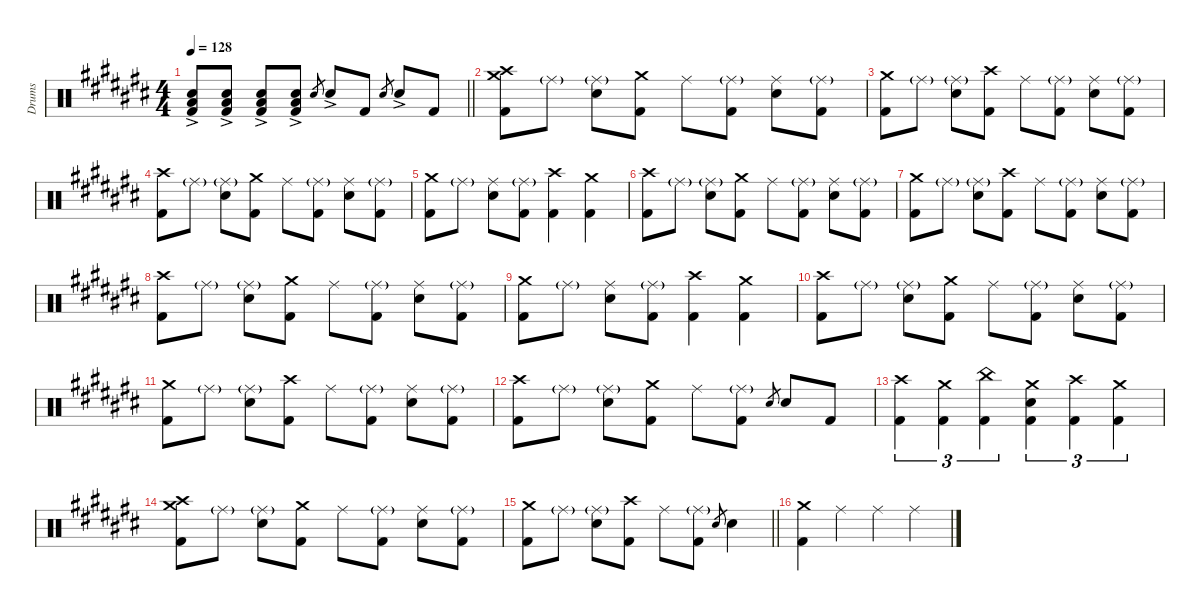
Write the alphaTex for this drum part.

\hideDynamics
\bracketExtendMode nobrackets
\otherSystemsTrackNameOrientation horizontal
\track ("Drumkit" "Drums") {defaultSystemsLayout 4 instrument percussion}
\staff {score}
\articulation defaults
\ts (4 4)
\tempo 128
\clef neutral
\barLineRight lightlight
\ks c#
("Low Tom (hit)"{ac acc forcenatural} "Snare (hit) 2"{acc forcenatural} "Kick (hit) 2"{acc forcenatural}).8{dy f beam Up} ("Low Tom (hit)"{ac acc forcenatural} "Snare (hit) 2"{acc forcenatural} "Kick (hit) 2"{acc forcenatural}).8{beam Up} ("Low Tom (hit)"{ac acc forcenatural} "Snare (hit) 2"{acc forcenatural} "Kick (hit) 2"{acc forcenatural}).8{dy ff beam Up} ("Low Tom (hit)"{ac acc forcenatural} "Snare (hit) 2"{acc forcenatural} "Kick (hit) 2"{acc forcenatural}).8{beam Up} "Snare (hit) 2"{acc forcenatural}.8{gr beam Up} "Snare (hit) 2"{ac acc forcenatural}.8{beam Up} "Kick (hit) 2"{acc forcenatural}.8{beam Up} "Snare (hit) 2"{acc forcenatural}.8{gr beam Up} "Snare (hit) 2"{ac acc forcenatural}.8{beam Up} "Kick (hit) 2"{acc forcenatural}.8{beam Up} |
("Kick (hit) 2"{acc forcenatural} "Crash high (hit)"{acc forcenatural} "Crash medium (hit)"{acc forcenatural}).8{beam Down} "Ride (middle)"{g acc forcenatural}.8{beam Down} ("Ride (middle)"{g acc forcenatural} "Snare (hit) 2"{acc forcenatural}).8{beam Down} ("Kick (hit) 2"{acc forcenatural} "Crash medium (hit)"{acc forcenatural}).8{beam Down} "Ride (middle)"{acc forcenatural}.8{beam Down} ("Ride (middle)"{g acc forcenatural} "Kick (hit) 2"{acc forcenatural}).8{beam Down} ("Ride (middle)"{acc forcenatural} "Snare (hit) 2"{acc forcenatural}).8{beam Down} ("Ride (middle)"{g acc forcenatural} "Kick (hit) 2"{acc forcenatural}).8{beam Down} |
("Crash medium (hit)"{acc forcenatural} "Kick (hit) 2"{acc forcenatural}).8{beam Down} "Ride (middle)"{g acc forcenatural}.8{beam Down} ("Ride (middle)"{g acc forcenatural} "Snare (hit) 2"{acc forcenatural}).8{beam Down} ("Crash high (hit)"{acc forcenatural} "Kick (hit) 2"{acc forcenatural}).8{beam Down} "Ride (middle)"{acc forcenatural}.8{beam Down} ("Ride (middle)"{g acc forcenatural} "Kick (hit) 2"{acc forcenatural}).8{beam Down} ("Ride (middle)"{acc forcenatural} "Snare (hit) 2"{acc forcenatural}).8{beam Down} ("Ride (middle)"{g acc forcenatural} "Kick (hit) 2"{acc forcenatural}).8{beam Down} |
("Kick (hit) 2"{acc forcenatural} "Crash high (hit)"{acc forcenatural}).8{beam Down} "Ride (middle)"{g acc forcenatural}.8{beam Down} ("Ride (middle)"{g acc forcenatural} "Snare (hit) 2"{acc forcenatural}).8{beam Down} ("Kick (hit) 2"{acc forcenatural} "Crash medium (hit)"{acc forcenatural}).8{beam Down} "Ride (middle)"{acc forcenatural}.8{beam Down} ("Ride (middle)"{g acc forcenatural} "Kick (hit) 2"{acc forcenatural}).8{beam Down} ("Ride (middle)"{acc forcenatural} "Snare (hit) 2"{acc forcenatural}).8{beam Down} ("Ride (middle)"{g acc forcenatural} "Kick (hit) 2"{acc forcenatural}).8{beam Down} |
("Crash medium (hit)"{acc forcenatural} "Kick (hit) 2"{acc forcenatural}).8{beam Down} "Ride (middle)"{g acc forcenatural}.8{beam Down} ("Ride (middle)"{acc forcenatural} "Snare (hit) 2"{acc forcenatural}).8{beam Down} ("Ride (middle)"{g acc forcenatural} "Kick (hit) 2"{acc forcenatural}).8{beam Down} ("Crash high (hit)"{acc forcenatural} "Kick (hit) 2"{acc forcenatural}).4{beam Down} ("Kick (hit) 2"{acc forcenatural} "Crash medium (hit)"{acc forcenatural}).4{beam Down} |
("Kick (hit) 2"{acc forcenatural} "Crash high (hit)"{acc forcenatural}).8{beam Down} "Ride (middle)"{g acc forcenatural}.8{beam Down} ("Ride (middle)"{g acc forcenatural} "Snare (hit) 2"{acc forcenatural}).8{beam Down} ("Kick (hit) 2"{acc forcenatural} "Crash medium (hit)"{acc forcenatural}).8{beam Down} "Ride (middle)"{acc forcenatural}.8{beam Down} ("Ride (middle)"{g acc forcenatural} "Kick (hit) 2"{acc forcenatural}).8{beam Down} ("Ride (middle)"{acc forcenatural} "Snare (hit) 2"{acc forcenatural}).8{beam Down} ("Ride (middle)"{g acc forcenatural} "Kick (hit) 2"{acc forcenatural}).8{beam Down} |
("Crash medium (hit)"{acc forcenatural} "Kick (hit) 2"{acc forcenatural}).8{beam Down} "Ride (middle)"{g acc forcenatural}.8{beam Down} ("Ride (middle)"{g acc forcenatural} "Snare (hit) 2"{acc forcenatural}).8{beam Down} ("Crash high (hit)"{acc forcenatural} "Kick (hit) 2"{acc forcenatural}).8{beam Down} "Ride (middle)"{acc forcenatural}.8{beam Down} ("Ride (middle)"{g acc forcenatural} "Kick (hit) 2"{acc forcenatural}).8{beam Down} ("Ride (middle)"{acc forcenatural} "Snare (hit) 2"{acc forcenatural}).8{beam Down} ("Ride (middle)"{g acc forcenatural} "Kick (hit) 2"{acc forcenatural}).8{beam Down} |
("Kick (hit) 2"{acc forcenatural} "Crash high (hit)"{acc forcenatural}).8{beam Down} "Ride (middle)"{g acc forcenatural}.8{beam Down} ("Ride (middle)"{g acc forcenatural} "Snare (hit) 2"{acc forcenatural}).8{beam Down} ("Kick (hit) 2"{acc forcenatural} "Crash medium (hit)"{acc forcenatural}).8{beam Down} "Ride (middle)"{acc forcenatural}.8{beam Down} ("Ride (middle)"{g acc forcenatural} "Kick (hit) 2"{acc forcenatural}).8{beam Down} ("Ride (middle)"{acc forcenatural} "Snare (hit) 2"{acc forcenatural}).8{beam Down} ("Ride (middle)"{g acc forcenatural} "Kick (hit) 2"{acc forcenatural}).8{beam Down} |
("Crash medium (hit)"{acc forcenatural} "Kick (hit) 2"{acc forcenatural}).8{beam Down} "Ride (middle)"{g acc forcenatural}.8{beam Down} ("Ride (middle)"{acc forcenatural} "Snare (hit) 2"{acc forcenatural}).8{beam Down} ("Ride (middle)"{g acc forcenatural} "Kick (hit) 2"{acc forcenatural}).8{beam Down} ("Crash high (hit)"{acc forcenatural} "Kick (hit) 2"{acc forcenatural}).4{beam Down} ("Kick (hit) 2"{acc forcenatural} "Crash medium (hit)"{acc forcenatural}).4{beam Down} |
("Kick (hit) 2"{acc forcenatural} "Crash high (hit)"{acc forcenatural}).8{beam Down} "Ride (middle)"{g acc forcenatural}.8{beam Down} ("Ride (middle)"{g acc forcenatural} "Snare (hit) 2"{acc forcenatural}).8{beam Down} ("Kick (hit) 2"{acc forcenatural} "Crash medium (hit)"{acc forcenatural}).8{beam Down} "Ride (middle)"{acc forcenatural}.8{beam Down} ("Ride (middle)"{g acc forcenatural} "Kick (hit) 2"{acc forcenatural}).8{beam Down} ("Ride (middle)"{acc forcenatural} "Snare (hit) 2"{acc forcenatural}).8{beam Down} ("Ride (middle)"{g acc forcenatural} "Kick (hit) 2"{acc forcenatural}).8{beam Down} |
("Crash medium (hit)"{acc forcenatural} "Kick (hit) 2"{acc forcenatural}).8{beam Down} "Ride (middle)"{g acc forcenatural}.8{beam Down} ("Ride (middle)"{g acc forcenatural} "Snare (hit) 2"{acc forcenatural}).8{beam Down} ("Crash high (hit)"{acc forcenatural} "Kick (hit) 2"{acc forcenatural}).8{beam Down} "Ride (middle)"{acc forcenatural}.8{beam Down} ("Ride (middle)"{g acc forcenatural} "Kick (hit) 2"{acc forcenatural}).8{beam Down} ("Ride (middle)"{acc forcenatural} "Snare (hit) 2"{acc forcenatural}).8{beam Down} ("Ride (middle)"{g acc forcenatural} "Kick (hit) 2"{acc forcenatural}).8{beam Down} |
("Kick (hit) 2"{acc forcenatural} "Crash high (hit)"{acc forcenatural}).8{beam Down} "Ride (middle)"{g acc forcenatural}.8{beam Down} ("Ride (middle)"{g acc forcenatural} "Snare (hit) 2"{acc forcenatural}).8{beam Down} ("Kick (hit) 2"{acc forcenatural} "Crash medium (hit)"{acc forcenatural}).8{beam Down} "Ride (middle)"{acc forcenatural}.8{beam Down} ("Ride (middle)"{g acc forcenatural} "Kick (hit) 2"{acc forcenatural}).8{beam Down} "Snare (hit) 2"{acc forcenatural}.8{gr beam Up} "Snare (hit) 2"{acc forcenatural}.8{beam Up} "Kick (hit) 2"{acc forcenatural}.8{beam Up} |
("Kick (hit) 2"{acc forcenatural} "Crash high (hit)"{acc forcenatural}).4{tu (3 2) beam Down} ("Kick (hit) 2"{acc forcenatural} "Crash medium (hit)"{acc forcenatural}).4{tu (3 2) beam Down} ("Kick (hit) 2"{acc forcenatural} "China (hit)"{acc forcenatural}).4{tu (3 2) beam Down} ("Kick (hit) 2"{acc forcenatural} "Crash medium (hit)"{acc forcenatural} "Snare (hit) 2"{acc forcenatural}).4{tu (3 2) beam Down} ("Kick (hit) 2"{acc forcenatural} "Crash high (hit)"{acc forcenatural}).4{tu (3 2) beam Down} ("Kick (hit) 2"{acc forcenatural} "Crash medium (hit)"{acc forcenatural}).4{tu (3 2) beam Down} |
("Kick (hit) 2"{acc forcenatural} "Crash high (hit)"{acc forcenatural} "Crash medium (hit)"{acc forcenatural}).8{beam Down} "Ride (middle)"{g acc forcenatural}.8{beam Down} ("Ride (middle)"{g acc forcenatural} "Snare (hit) 2"{acc forcenatural}).8{beam Down} ("Kick (hit) 2"{acc forcenatural} "Crash medium (hit)"{acc forcenatural}).8{beam Down} "Ride (middle)"{acc forcenatural}.8{beam Down} ("Ride (middle)"{g acc forcenatural} "Kick (hit) 2"{acc forcenatural}).8{beam Down} ("Ride (middle)"{acc forcenatural} "Snare (hit) 2"{acc forcenatural}).8{beam Down} ("Ride (middle)"{g acc forcenatural} "Kick (hit) 2"{acc forcenatural}).8{beam Down} |
\barLineRight lightlight
("Crash medium (hit)"{acc forcenatural} "Kick (hit) 2"{acc forcenatural}).8{beam Down} "Ride (middle)"{g acc forcenatural}.8{beam Down} ("Ride (middle)"{g acc forcenatural} "Snare (hit) 2"{acc forcenatural}).8{beam Down} ("Crash high (hit)"{acc forcenatural} "Kick (hit) 2"{acc forcenatural}).8{beam Down} "Ride (middle)"{acc forcenatural}.8{beam Down} ("Ride (middle)"{g acc forcenatural} "Kick (hit) 2"{acc forcenatural}).8{beam Down} "Snare (hit) 2"{acc forcenatural}.8{gr beam Up} "Snare (hit) 2"{acc forcenatural}.4{beam Down} |
("Crash medium (hit)"{acc forcenatural} "Kick (hit) 2"{acc forcenatural}).4{beam Down} "Ride (middle)"{acc forcenatural}.4{beam Down} "Ride (middle)"{acc forcenatural}.4{beam Down} "Ride (middle)"{acc forcenatural}.4{beam Down}
